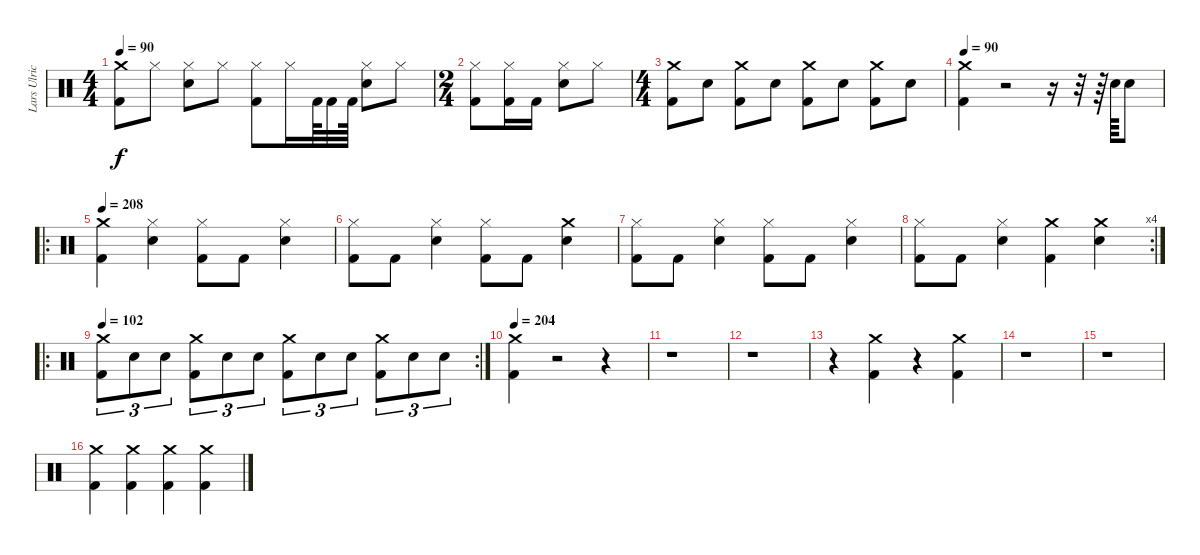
\track ("Lars Ulrich (Drums)" "Lars Ulric") {instrument percussion}
\staff {score}
\articulation defaults
\ts (4 4)
\tempo 90
\clef neutral
\ks c
("Kick (hit) 2" "Crash medium (hit)").8{dy f} "Hi-Hat (closed)".8 ("Snare (hit) 2" "Hi-Hat (closed)").8 "Hi-Hat (closed)".8 ("Hi-Hat (closed)" "Kick (hit) 2").8 "Hi-Hat (closed)".16 "Kick (hit) 2".64 "Kick (hit) 2".32 "Kick (hit) 2".64 ("Hi-Hat (closed)" "Snare (hit) 2").8 "Hi-Hat (closed)".8 |
\ts (2 4)
("Kick (hit) 2" "Hi-Hat (closed)").8 ("Kick (hit) 2" "Hi-Hat (closed)").16 "Kick (hit) 2".16 ("Snare (hit) 2" "Hi-Hat (closed)").8 "Hi-Hat (closed)".8 |
\ts (4 4)
("Kick (hit) 2" "Crash medium (hit)").8 "Snare (hit) 2".8 ("Kick (hit) 2" "Crash medium (hit)").8 "Snare (hit) 2".8 ("Kick (hit) 2" "Crash medium (hit)").8 "Snare (hit) 2".8 ("Kick (hit) 2" "Crash medium (hit)").8 "Snare (hit) 2".8 |
\tempo 90
("Kick (hit) 2" "Crash medium (hit)").4 r.2 r.16 r.32 r.64 "Snare (hit) 2".64 "Snare (hit) 2".8 |
\ro
\tempo 208
("Kick (hit) 2" "Crash medium (hit)").4 ("Hi-Hat (closed)" "Snare (hit) 2").4 ("Hi-Hat (closed)" "Kick (hit) 2").8 "Kick (hit) 2".8 ("Snare (hit) 2" "Hi-Hat (closed)").4 |
("Hi-Hat (closed)" "Kick (hit) 2").8 "Kick (hit) 2".8 ("Snare (hit) 2" "Hi-Hat (closed)").4 ("Hi-Hat (closed)" "Kick (hit) 2").8 "Kick (hit) 2".8 ("Crash medium (hit)" "Snare (hit) 2").4 |
("Hi-Hat (closed)" "Kick (hit) 2").8 "Kick (hit) 2".8 ("Snare (hit) 2" "Hi-Hat (closed)").4 ("Hi-Hat (closed)" "Kick (hit) 2").8 "Kick (hit) 2".8 ("Snare (hit) 2" "Hi-Hat (closed)").4 |
\rc 4
("Hi-Hat (closed)" "Kick (hit) 2").8 "Kick (hit) 2".8 ("Snare (hit) 2" "Hi-Hat (closed)").4 ("Crash medium (hit)" "Kick (hit) 2").4 ("Crash medium (hit)" "Snare (hit) 2").4 |
\ro
\rc 2
\tempo 102
("Kick (hit) 2" "Crash medium (hit)").8{tu (3 2)} "Snare (hit) 2".8{tu (3 2)} "Snare (hit) 2".8{tu (3 2)} ("Kick (hit) 2" "Crash medium (hit)").8{tu (3 2)} "Snare (hit) 2".8{tu (3 2)} "Snare (hit) 2".8{tu (3 2)} ("Kick (hit) 2" "Crash medium (hit)").8{tu (3 2)} "Snare (hit) 2".8{tu (3 2)} "Snare (hit) 2".8{tu (3 2)} ("Kick (hit) 2" "Crash medium (hit)").8{tu (3 2)} "Snare (hit) 2".8{tu (3 2)} "Snare (hit) 2".8{tu (3 2)} |
\tempo 204
("Kick (hit) 2" "Crash medium (hit)").4 r.2 r.4 |
r.1 |
r.1 |
r.4 ("Kick (hit) 2" "Crash medium (hit)").4 r.4 ("Kick (hit) 2" "Crash medium (hit)").4 |
r.1 |
r.1 |
("Kick (hit) 2" "Crash medium (hit)").4 ("Kick (hit) 2" "Crash medium (hit)").4 ("Kick (hit) 2" "Crash medium (hit)").4 ("Kick (hit) 2" "Crash medium (hit)").4
